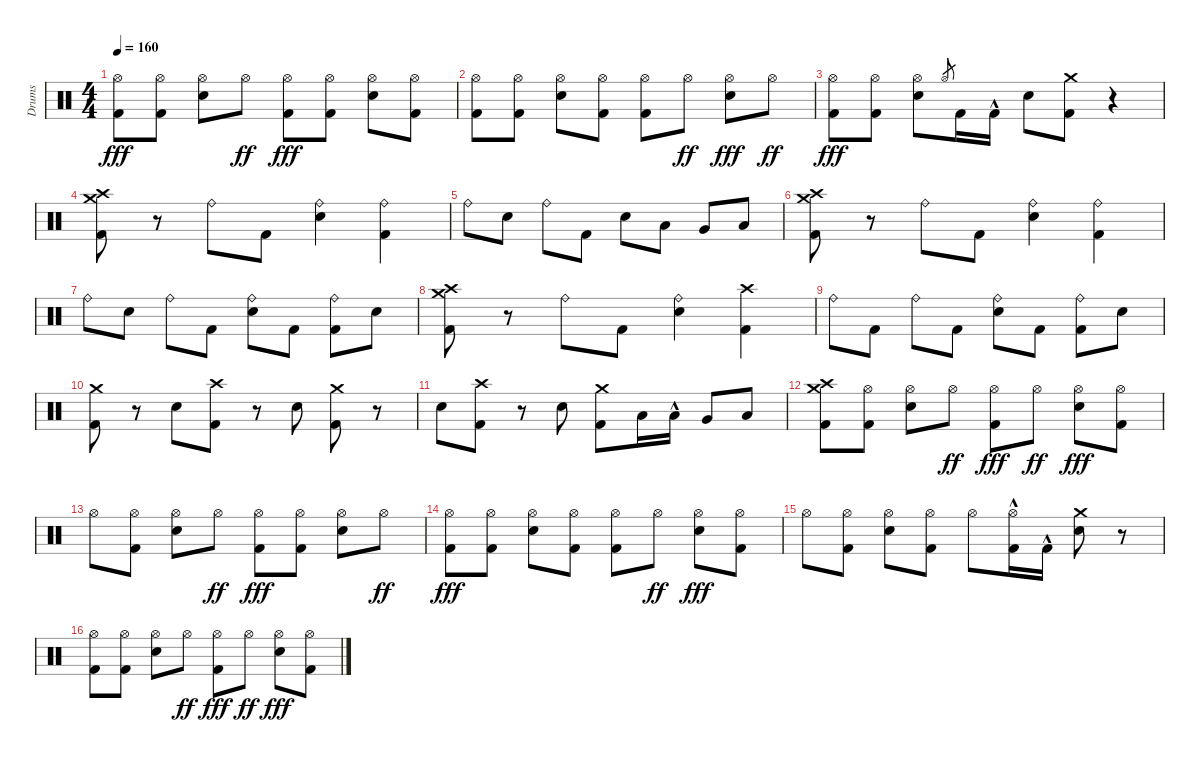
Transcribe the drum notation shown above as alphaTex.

\track ("Drums" "Drums") {instrument percussion}
\staff {score}
\articulation defaults
\ts (4 4)
\tempo 160
\clef neutral
\ks c
("Hi-Hat (open)" "Kick (hit) 2").8{dy fff} ("Hi-Hat (open)" "Kick (hit) 2").8 ("Hi-Hat (open)" "Snare (hit) 2").8 "Hi-Hat (open)".8{dy ff} ("Hi-Hat (open)" "Kick (hit) 2").8{dy fff} ("Hi-Hat (open)" "Kick (hit) 2").8 ("Hi-Hat (open)" "Snare (hit) 2").8 ("Hi-Hat (open)" "Kick (hit) 2").8 |
("Hi-Hat (open)" "Kick (hit) 2").8 ("Hi-Hat (open)" "Kick (hit) 2").8 ("Hi-Hat (open)" "Snare (hit) 2").8 ("Hi-Hat (open)" "Kick (hit) 2").8 ("Hi-Hat (open)" "Kick (hit) 2").8 "Hi-Hat (open)".8{dy ff} ("Hi-Hat (open)" "Snare (hit) 2").8{dy fff} "Hi-Hat (open)".8{dy ff} |
("Hi-Hat (open)" "Kick (hit) 2").8{dy fff} ("Hi-Hat (open)" "Kick (hit) 2").8 ("Hi-Hat (open)" "Snare (hit) 2").8 "Hi-Hat (open)".8{gr} "Kick (hit) 2".16 "Kick (hit) 2"{hac}.16 "Snare (hit) 2".8 ("Kick (hit) 2" "Crash medium (hit)").8 r.4 |
("Kick (hit) 2" "Crash high (hit)" "Crash medium (hit)").8 r.8 "Ride (bell)".8 "Kick (hit) 2".8 ("Ride (bell)" "Snare (hit) 2").4 ("Ride (bell)" "Kick (hit) 2").4 |
"Ride (bell)".8 "Snare (hit) 2".8 "Ride (bell)".8 "Kick (hit) 2".8 "Snare (hit) 2".8 "Low Tom (hit)".8 "Very Low Tom (hit)".8 "Low Floor Tom (hit)".8 |
("Kick (hit) 2" "Crash high (hit)" "Crash medium (hit)").8 r.8 "Ride (bell)".8 "Kick (hit) 2".8 ("Ride (bell)" "Snare (hit) 2").4 ("Ride (bell)" "Kick (hit) 2").4 |
"Ride (bell)".8 "Snare (hit) 2".8 "Ride (bell)".8 "Kick (hit) 2".8 ("Ride (bell)" "Snare (hit) 2").8 "Kick (hit) 2".8 ("Ride (bell)" "Kick (hit) 2").8 "Snare (hit) 2".8 |
("Kick (hit) 2" "Crash high (hit)" "Crash medium (hit)").8 r.8 "Ride (bell)".8 "Kick (hit) 2".8 ("Ride (bell)" "Snare (hit) 2").4 ("Crash high (hit)" "Kick (hit) 2").4 |
"Ride (bell)".8 "Kick (hit) 2".8 "Ride (bell)".8 "Kick (hit) 2".8 ("Ride (bell)" "Snare (hit) 2").8 "Kick (hit) 2".8 ("Ride (bell)" "Kick (hit) 2").8 "Snare (hit) 2".8 |
("Kick (hit) 2" "Crash medium (hit)").8 r.8 "Snare (hit) 2".8 ("Crash high (hit)" "Kick (hit) 2").8 r.8 "Snare (hit) 2".8 ("Crash medium (hit)" "Kick (hit) 2").8 r.8 |
"Snare (hit) 2".8 ("Crash high (hit)" "Kick (hit) 2").8 r.8 "Snare (hit) 2".8 ("Crash medium (hit)" "Kick (hit) 2").8 "Low Tom (hit)".16 "Low Tom (hit)"{hac}.16 "Very Low Tom (hit)".8 "Low Floor Tom (hit)".8 |
("Crash high (hit)" "Crash medium (hit)" "Kick (hit) 2").8 ("Hi-Hat (open)" "Kick (hit) 2").8 ("Hi-Hat (open)" "Snare (hit) 2").8 "Hi-Hat (open)".8{dy ff} ("Hi-Hat (open)" "Kick (hit) 2").8{dy fff} "Hi-Hat (open)".8{dy ff} ("Hi-Hat (open)" "Snare (hit) 2").8{dy fff} ("Hi-Hat (open)" "Kick (hit) 2").8 |
"Hi-Hat (open)".8 ("Hi-Hat (open)" "Kick (hit) 2").8 ("Hi-Hat (open)" "Snare (hit) 2").8 "Hi-Hat (open)".8{dy ff} ("Hi-Hat (open)" "Kick (hit) 2").8{dy fff} ("Hi-Hat (open)" "Kick (hit) 2").8 ("Hi-Hat (open)" "Snare (hit) 2").8 "Hi-Hat (open)".8{dy ff} |
("Hi-Hat (open)" "Kick (hit) 2").8{dy fff} ("Hi-Hat (open)" "Kick (hit) 2").8 ("Hi-Hat (open)" "Snare (hit) 2").8 ("Hi-Hat (open)" "Kick (hit) 2").8 ("Hi-Hat (open)" "Kick (hit) 2").8 "Hi-Hat (open)".8{dy ff} ("Hi-Hat (open)" "Snare (hit) 2").8{dy fff} ("Hi-Hat (open)" "Kick (hit) 2").8 |
"Hi-Hat (open)".8 ("Hi-Hat (open)" "Kick (hit) 2").8 ("Hi-Hat (open)" "Snare (hit) 2").8 ("Hi-Hat (open)" "Kick (hit) 2").8 "Hi-Hat (open)".8 ("Hi-Hat (open)"{hac} "Kick (hit) 2").16 "Kick (hit) 2"{hac}.16 ("Crash medium (hit)" "Snare (hit) 2").8 r.8 |
("Hi-Hat (open)" "Kick (hit) 2").8 ("Hi-Hat (open)" "Kick (hit) 2").8 ("Hi-Hat (open)" "Snare (hit) 2").8 "Hi-Hat (open)".8{dy ff} ("Hi-Hat (open)" "Kick (hit) 2").8{dy fff} "Hi-Hat (open)".8{dy ff} ("Hi-Hat (open)" "Snare (hit) 2").8{dy fff} ("Hi-Hat (open)" "Kick (hit) 2").8
